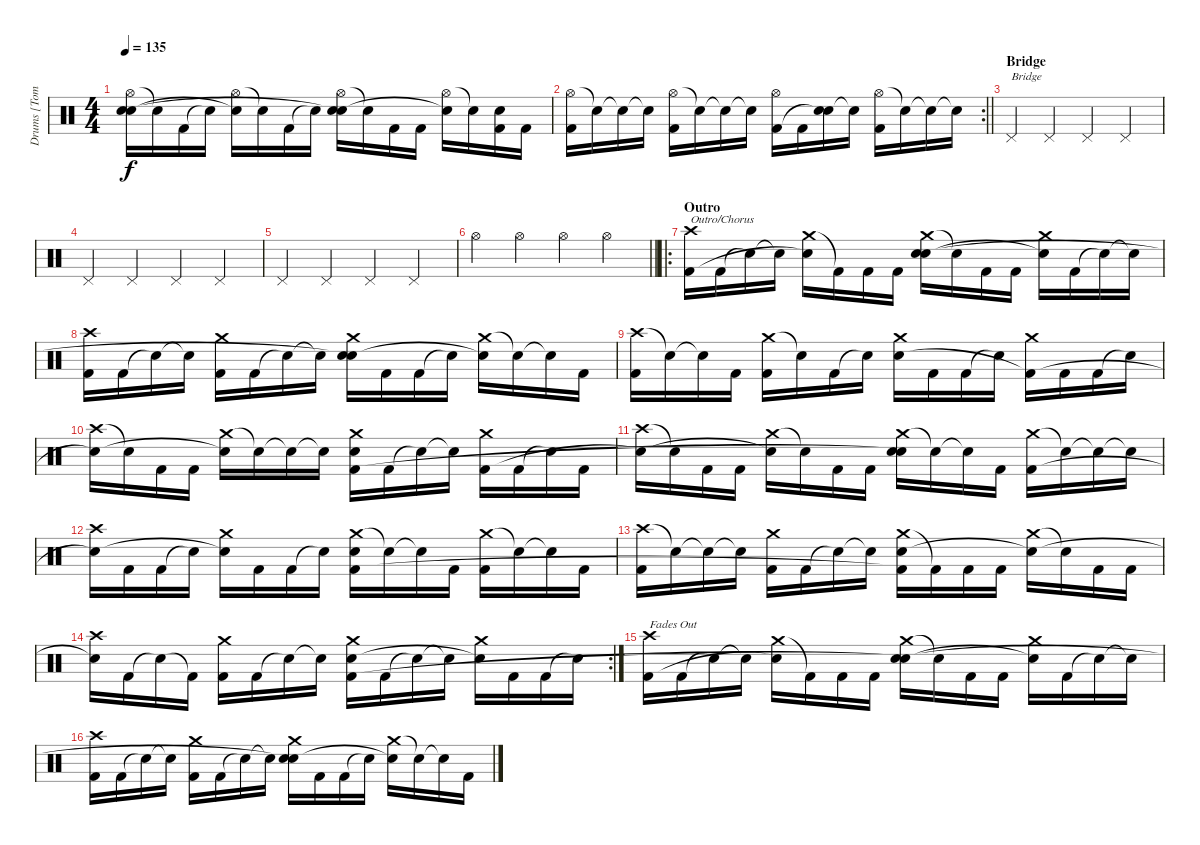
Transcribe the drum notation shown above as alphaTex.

\track ("Drums [Tomas Haake]" "Drums [Tom") {instrument percussion}
\staff {score}
\articulation defaults
\ts (4 4)
\tempo 135
\clef neutral
\ks c
("Hi-Hat (open)" "Electric Snare (hit)" "Snare (hit)").16{dy f} "Snare (hit)"{t}.16 "Kick (hit) 2".16 "Snare (hit)"{t}.16 ("Hi-Hat (open)" "Snare (hit)"{t}).16 "Snare (hit)"{t}.16 "Kick (hit) 2".16 "Snare (hit)"{t}.16 ("Hi-Hat (open)" "Electric Snare (hit)" "Snare (hit)"{t}).16 "Snare (hit)"{t}.16 "Kick (hit) 2".16 "Kick (hit) 2".16 ("Hi-Hat (open)" "Snare (hit)"{t}).16 "Snare (hit)"{t}.16 ("Electric Snare (hit)" "Kick (hit) 2").16 "Kick (hit) 2".16 |
\rc 2
\barLineRight lightlight
("Hi-Hat (open)" "Kick (hit) 2").16 "Snare (hit)"{t}.16 "Snare (hit)"{t}.16 "Snare (hit)"{t}.16 ("Hi-Hat (open)" "Kick (hit) 2").16 "Snare (hit)"{t}.16 "Snare (hit)"{t}.16 "Snare (hit)"{t}.16 ("Hi-Hat (open)" "Kick (hit) 2").16 "Kick (hit) 2".16 ("Electric Snare (hit)" "Snare (hit)"{t}).16 "Snare (hit)"{t}.16 ("Hi-Hat (open)" "Kick (hit) 2").16 "Snare (hit)"{t}.16 "Snare (hit)"{t}.16 "Snare (hit)"{t}.16 |
\section ("" "Bridge")
"Pedal Hi-Hat (hit)".4{txt "Bridge"} "Pedal Hi-Hat (hit)".4 "Pedal Hi-Hat (hit)".4 "Pedal Hi-Hat (hit)".4 |
"Pedal Hi-Hat (hit)".4 "Pedal Hi-Hat (hit)".4 "Pedal Hi-Hat (hit)".4 "Pedal Hi-Hat (hit)".4 |
"Pedal Hi-Hat (hit)".4 "Pedal Hi-Hat (hit)".4 "Pedal Hi-Hat (hit)".4 "Pedal Hi-Hat (hit)".4 |
\barLineRight lightlight "Hi-Hat (open)".4 "Hi-Hat (open)".4 "Hi-Hat (open)".4 "Hi-Hat (open)".4
|
\ro
\section ("" "Outro")
("Crash high (hit)" "Kick (hit) 2").16{txt "Outro/Chorus"} "Kick (hit) 2".16 "Snare (hit)"{t}.16 "Snare (hit)"{t}.16 ("Crash medium (hit)" "Snare (hit)"{t}).16 "Kick (hit) 2"{t}.16 "Kick (hit) 2".16 "Kick (hit) 2".16 ("Crash medium (hit)" "Electric Snare (hit)" "Snare (hit)").16 "Snare (hit)"{t}.16 "Kick (hit) 2".16 "Kick (hit) 2".16 ("Crash medium (hit)" "Snare (hit)"{t}).16 "Kick (hit) 2".16 "Snare (hit)"{t}.16 "Snare (hit)"{t}.16 |
("Crash high (hit)" "Kick (hit) 2").16 "Kick (hit) 2".16 "Snare (hit)"{t}.16 "Snare (hit)"{t}.16 ("Crash medium (hit)" "Kick (hit) 2").16 "Kick (hit) 2".16 "Snare (hit)"{t}.16 "Snare (hit)"{t}.16 ("Crash medium (hit)" "Electric Snare (hit)" "Snare (hit)"{t}).16 "Kick (hit) 2".16 "Kick (hit) 2".16 "Snare (hit)"{t}.16 ("Crash medium (hit)" "Snare (hit)"{t}).16 "Snare (hit)"{t}.16 "Snare (hit)"{t}.16 "Kick (hit) 2".16 |
("Crash high (hit)" "Kick (hit) 2").16 "Snare (hit)"{t}.16 "Snare (hit)"{t}.16 "Kick (hit) 2".16 ("Crash medium (hit)" "Kick (hit) 2").16 "Snare (hit)"{t}.16 "Kick (hit) 2".16 "Snare (hit)"{t}.16 ("Crash medium (hit)" "Electric Snare (hit)").16 "Kick (hit) 2".16 "Kick (hit) 2".16 "Snare (hit)"{t}.16 ("Crash medium (hit)" "Kick (hit) 2"{t}).16 "Kick (hit) 2".16 "Kick (hit) 2".16 "Snare (hit)"{t}.16 |
("Crash high (hit)" "Snare (hit)"{t}).16 "Snare (hit)"{t}.16 "Kick (hit) 2".16 "Kick (hit) 2".16 ("Crash medium (hit)" "Snare (hit)"{t}).16 "Snare (hit)"{t}.16 "Snare (hit)"{t}.16 "Snare (hit)"{t}.16 ("Crash medium (hit)" "Electric Snare (hit)" "Kick (hit) 2").16 "Kick (hit) 2".16 "Snare (hit)"{t}.16 "Snare (hit)"{t}.16 ("Crash medium (hit)" "Kick (hit) 2").16 "Kick (hit) 2".16 "Snare (hit)"{t}.16 "Kick (hit) 2".16 |
("Crash high (hit)" "Snare (hit)"{t}).16 "Snare (hit)"{t}.16 "Kick (hit) 2".16 "Kick (hit) 2".16 ("Crash medium (hit)" "Snare (hit)"{t}).16 "Snare (hit)"{t}.16 "Kick (hit) 2".16 "Kick (hit) 2".16 ("Crash medium (hit)" "Electric Snare (hit)" "Snare (hit)"{t}).16 "Snare (hit)"{t}.16 "Snare (hit)"{t}.16 "Kick (hit) 2".16 ("Crash medium (hit)" "Kick (hit) 2").16 "Snare (hit)"{t}.16 "Snare (hit)"{t}.16 "Snare (hit)"{t}.16 |
("Crash high (hit)" "Snare (hit)"{t}).16 "Kick (hit) 2".16 "Kick (hit) 2".16 "Snare (hit)"{t}.16 ("Crash medium (hit)" "Snare (hit)"{t}).16 "Kick (hit) 2".16 "Kick (hit) 2".16 "Snare (hit)"{t}.16 ("Crash medium (hit)" "Electric Snare (hit)" "Kick (hit) 2").16 "Snare (hit)"{t}.16 "Snare (hit)"{t}.16 "Kick (hit) 2".16 ("Crash medium (hit)" "Kick (hit) 2").16 "Snare (hit)"{t}.16 "Snare (hit)"{t}.16 "Kick (hit) 2".16 |
("Crash high (hit)" "Kick (hit) 2").16 "Snare (hit)"{t}.16 "Snare (hit)"{t}.16 "Snare (hit)"{t}.16 ("Crash medium (hit)" "Kick (hit) 2").16 "Kick (hit) 2".16 "Snare (hit)"{t}.16 "Snare (hit)"{t}.16 ("Crash medium (hit)" "Electric Snare (hit)" "Kick (hit) 2"{t}).16 "Kick (hit) 2"{t}.16 "Kick (hit) 2".16 "Kick (hit) 2".16 ("Crash medium (hit)" "Snare (hit)"{t}).16 "Snare (hit)"{t}.16 "Kick (hit) 2".16 "Kick (hit) 2".16 |
\rc 2
("Crash high (hit)" "Snare (hit)"{t}).16 "Kick (hit) 2".16 "Snare (hit)"{t}.16 "Kick (hit) 2"{t}.16 ("Crash medium (hit)" "Kick (hit) 2").16 "Kick (hit) 2".16 "Snare (hit)"{t}.16 "Snare (hit)"{t}.16 ("Crash medium (hit)" "Electric Snare (hit)" "Kick (hit) 2").16 "Kick (hit) 2".16 "Snare (hit)"{t}.16 "Snare (hit)"{t}.16 ("Crash medium (hit)" "Snare (hit)"{t}).16 "Kick (hit) 2".16 "Kick (hit) 2".16 "Snare (hit)"{t}.16 |
("Crash high (hit)" "Kick (hit) 2").16{txt "Fades Out"} "Kick (hit) 2".16 "Snare (hit)"{t}.16 "Snare (hit)"{t}.16 ("Crash medium (hit)" "Snare (hit)"{t}).16 "Kick (hit) 2"{t}.16 "Kick (hit) 2".16 "Kick (hit) 2".16 ("Crash medium (hit)" "Electric Snare (hit)" "Snare (hit)"{t}).16 "Snare (hit)"{t}.16 "Kick (hit) 2".16 "Kick (hit) 2".16 ("Crash medium (hit)" "Snare (hit)"{t}).16 "Kick (hit) 2".16 "Snare (hit)"{t}.16 "Snare (hit)"{t}.16 |
("Crash high (hit)" "Kick (hit) 2").16 "Kick (hit) 2".16 "Snare (hit)"{t}.16 "Snare (hit)"{t}.16 ("Crash medium (hit)" "Kick (hit) 2").16 "Kick (hit) 2".16 "Snare (hit)"{t}.16 "Snare (hit)"{t}.16 ("Crash medium (hit)" "Electric Snare (hit)" "Snare (hit)"{t}).16 "Kick (hit) 2".16 "Kick (hit) 2".16 "Snare (hit)"{t}.16 ("Crash medium (hit)" "Snare (hit)"{t}).16 "Snare (hit)"{t}.16 "Snare (hit)"{t}.16 "Kick (hit) 2".16
